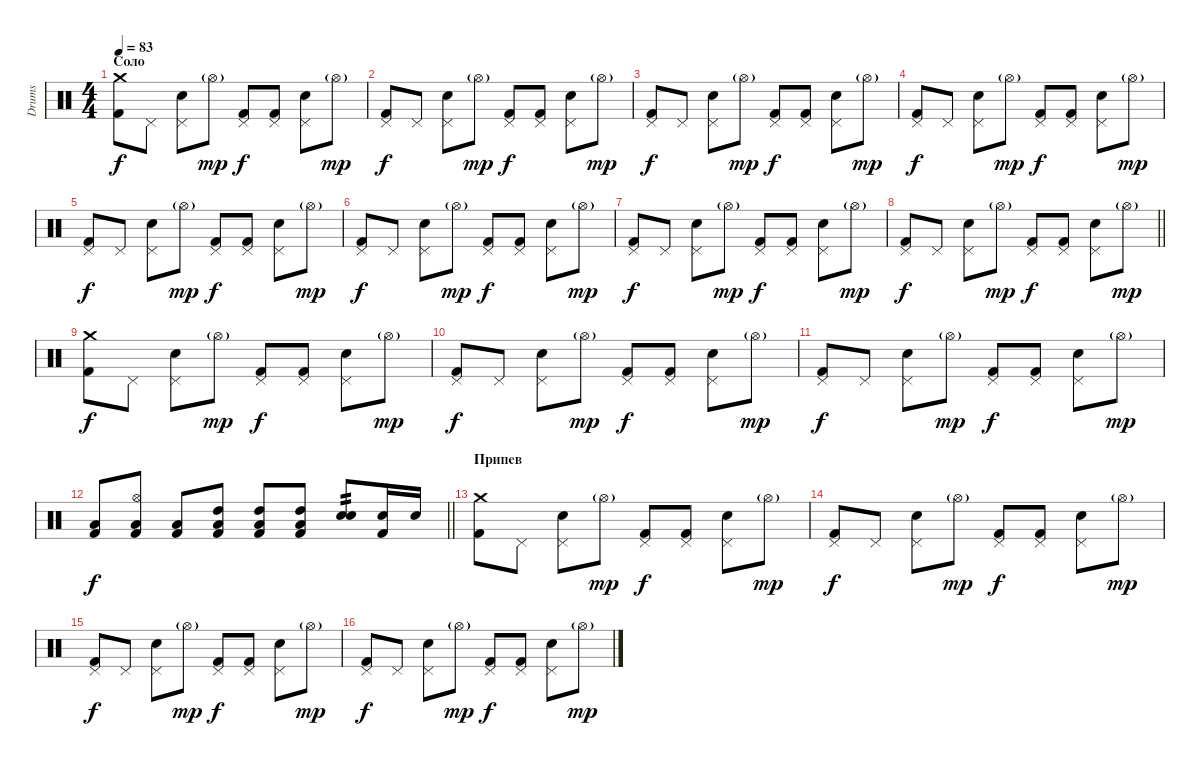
\track ("Drums" "Drums") {instrument percussion}
\staff {score}
\articulation defaults
\ts (4 4)
\section ("" "Соло")
\tempo 83
\clef neutral
\ks c
("Crash medium (hit)" "Kick (hit) 2").8{dy f} "Pedal Hi-Hat (hit)".8 ("Pedal Hi-Hat (hit)" "Electric Snare (hit)").8 "Hi-Hat (open)"{g}.8{dy mp} ("Pedal Hi-Hat (hit)" "Kick (hit) 2").8{dy f} ("Pedal Hi-Hat (hit)" "Kick (hit) 2").8 ("Pedal Hi-Hat (hit)" "Electric Snare (hit)").8 "Hi-Hat (open)"{g}.8{dy mp} |
("Pedal Hi-Hat (hit)" "Kick (hit) 2").8{dy f} "Pedal Hi-Hat (hit)".8 ("Pedal Hi-Hat (hit)" "Electric Snare (hit)").8 "Hi-Hat (open)"{g}.8{dy mp} ("Pedal Hi-Hat (hit)" "Kick (hit) 2").8{dy f} ("Pedal Hi-Hat (hit)" "Kick (hit) 2").8 ("Pedal Hi-Hat (hit)" "Electric Snare (hit)").8 "Hi-Hat (open)"{g}.8{dy mp} |
("Pedal Hi-Hat (hit)" "Kick (hit) 2").8{dy f} "Pedal Hi-Hat (hit)".8 ("Pedal Hi-Hat (hit)" "Electric Snare (hit)").8 "Hi-Hat (open)"{g}.8{dy mp} ("Pedal Hi-Hat (hit)" "Kick (hit) 2").8{dy f} ("Pedal Hi-Hat (hit)" "Kick (hit) 2").8 ("Pedal Hi-Hat (hit)" "Electric Snare (hit)").8 "Hi-Hat (open)"{g}.8{dy mp} |
("Pedal Hi-Hat (hit)" "Kick (hit) 2").8{dy f} "Pedal Hi-Hat (hit)".8 ("Pedal Hi-Hat (hit)" "Electric Snare (hit)").8 "Hi-Hat (open)"{g}.8{dy mp} ("Pedal Hi-Hat (hit)" "Kick (hit) 2").8{dy f} ("Pedal Hi-Hat (hit)" "Kick (hit) 2").8 ("Pedal Hi-Hat (hit)" "Electric Snare (hit)").8 "Hi-Hat (open)"{g}.8{dy mp} |
("Pedal Hi-Hat (hit)" "Kick (hit) 2").8{dy f} "Pedal Hi-Hat (hit)".8 ("Pedal Hi-Hat (hit)" "Electric Snare (hit)").8 "Hi-Hat (open)"{g}.8{dy mp} ("Pedal Hi-Hat (hit)" "Kick (hit) 2").8{dy f} ("Pedal Hi-Hat (hit)" "Kick (hit) 2").8 ("Pedal Hi-Hat (hit)" "Electric Snare (hit)").8 "Hi-Hat (open)"{g}.8{dy mp} |
("Pedal Hi-Hat (hit)" "Kick (hit) 2").8{dy f} "Pedal Hi-Hat (hit)".8 ("Pedal Hi-Hat (hit)" "Electric Snare (hit)").8 "Hi-Hat (open)"{g}.8{dy mp} ("Pedal Hi-Hat (hit)" "Kick (hit) 2").8{dy f} ("Pedal Hi-Hat (hit)" "Kick (hit) 2").8 ("Pedal Hi-Hat (hit)" "Electric Snare (hit)").8 "Hi-Hat (open)"{g}.8{dy mp} |
("Pedal Hi-Hat (hit)" "Kick (hit) 2").8{dy f} "Pedal Hi-Hat (hit)".8 ("Pedal Hi-Hat (hit)" "Electric Snare (hit)").8 "Hi-Hat (open)"{g}.8{dy mp} ("Pedal Hi-Hat (hit)" "Kick (hit) 2").8{dy f} ("Pedal Hi-Hat (hit)" "Kick (hit) 2").8 ("Pedal Hi-Hat (hit)" "Electric Snare (hit)").8 "Hi-Hat (open)"{g}.8{dy mp} |
\barLineRight lightlight
("Pedal Hi-Hat (hit)" "Kick (hit) 2").8{dy f} "Pedal Hi-Hat (hit)".8 ("Pedal Hi-Hat (hit)" "Electric Snare (hit)").8 "Hi-Hat (open)"{g}.8{dy mp} ("Pedal Hi-Hat (hit)" "Kick (hit) 2").8{dy f} ("Pedal Hi-Hat (hit)" "Kick (hit) 2").8 ("Pedal Hi-Hat (hit)" "Electric Snare (hit)").8 "Hi-Hat (open)"{g}.8{dy mp} |
\section ("" "")
("Crash medium (hit)" "Kick (hit) 2").8{dy f} "Pedal Hi-Hat (hit)".8 ("Pedal Hi-Hat (hit)" "Electric Snare (hit)").8 "Hi-Hat (open)"{g}.8{dy mp} ("Pedal Hi-Hat (hit)" "Kick (hit) 2").8{dy f} ("Pedal Hi-Hat (hit)" "Kick (hit) 2").8 ("Pedal Hi-Hat (hit)" "Electric Snare (hit)").8 "Hi-Hat (open)"{g}.8{dy mp} |
("Pedal Hi-Hat (hit)" "Kick (hit) 2").8{dy f} "Pedal Hi-Hat (hit)".8 ("Pedal Hi-Hat (hit)" "Electric Snare (hit)").8 "Hi-Hat (open)"{g}.8{dy mp} ("Pedal Hi-Hat (hit)" "Kick (hit) 2").8{dy f} ("Pedal Hi-Hat (hit)" "Kick (hit) 2").8 ("Pedal Hi-Hat (hit)" "Electric Snare (hit)").8 "Hi-Hat (open)"{g}.8{dy mp} |
("Pedal Hi-Hat (hit)" "Kick (hit) 2").8{dy f} "Pedal Hi-Hat (hit)".8 ("Pedal Hi-Hat (hit)" "Electric Snare (hit)").8 "Hi-Hat (open)"{g}.8{dy mp} ("Pedal Hi-Hat (hit)" "Kick (hit) 2").8{dy f} ("Pedal Hi-Hat (hit)" "Kick (hit) 2").8 ("Pedal Hi-Hat (hit)" "Electric Snare (hit)").8 "Hi-Hat (open)"{g}.8{dy mp} |
\barLineRight lightlight
("Low Tom (hit)" "Kick (hit) 2").8{dy f} ("Hi-Hat (open)" "Low Tom (hit)" "Kick (hit) 2").8 ("Low Tom (hit)" "Kick (hit) 2").8 ("Low Tom (hit)" "High Tom (hit)" "Kick (hit) 2").8 ("Low Tom (hit)" "High Tom (hit)" "Kick (hit) 2").8 ("Low Tom (hit)" "High Tom (hit)" "Kick (hit) 2").8 ("Electric Snare (hit)" "Electric Snare (hit)").8{tp 2} ("Electric Snare (hit)" "Kick (hit) 2").16 "Electric Snare (hit)".16 |
\section ("" "Припев")
("Crash medium (hit)" "Kick (hit) 2").8 "Pedal Hi-Hat (hit)".8 ("Pedal Hi-Hat (hit)" "Electric Snare (hit)").8 "Hi-Hat (open)"{g}.8{dy mp} ("Pedal Hi-Hat (hit)" "Kick (hit) 2").8{dy f} ("Pedal Hi-Hat (hit)" "Kick (hit) 2").8 ("Pedal Hi-Hat (hit)" "Electric Snare (hit)").8 "Hi-Hat (open)"{g}.8{dy mp} |
("Pedal Hi-Hat (hit)" "Kick (hit) 2").8{dy f} "Pedal Hi-Hat (hit)".8 ("Pedal Hi-Hat (hit)" "Electric Snare (hit)").8 "Hi-Hat (open)"{g}.8{dy mp} ("Pedal Hi-Hat (hit)" "Kick (hit) 2").8{dy f} ("Pedal Hi-Hat (hit)" "Kick (hit) 2").8 ("Pedal Hi-Hat (hit)" "Electric Snare (hit)").8 "Hi-Hat (open)"{g}.8{dy mp} |
("Pedal Hi-Hat (hit)" "Kick (hit) 2").8{dy f} "Pedal Hi-Hat (hit)".8 ("Pedal Hi-Hat (hit)" "Electric Snare (hit)").8 "Hi-Hat (open)"{g}.8{dy mp} ("Pedal Hi-Hat (hit)" "Kick (hit) 2").8{dy f} ("Pedal Hi-Hat (hit)" "Kick (hit) 2").8 ("Pedal Hi-Hat (hit)" "Electric Snare (hit)").8 "Hi-Hat (open)"{g}.8{dy mp} |
("Pedal Hi-Hat (hit)" "Kick (hit) 2").8{dy f} "Pedal Hi-Hat (hit)".8 ("Pedal Hi-Hat (hit)" "Electric Snare (hit)").8 "Hi-Hat (open)"{g}.8{dy mp} ("Pedal Hi-Hat (hit)" "Kick (hit) 2").8{dy f} ("Pedal Hi-Hat (hit)" "Kick (hit) 2").8 ("Pedal Hi-Hat (hit)" "Electric Snare (hit)").8 "Hi-Hat (open)"{g}.8{dy mp}
